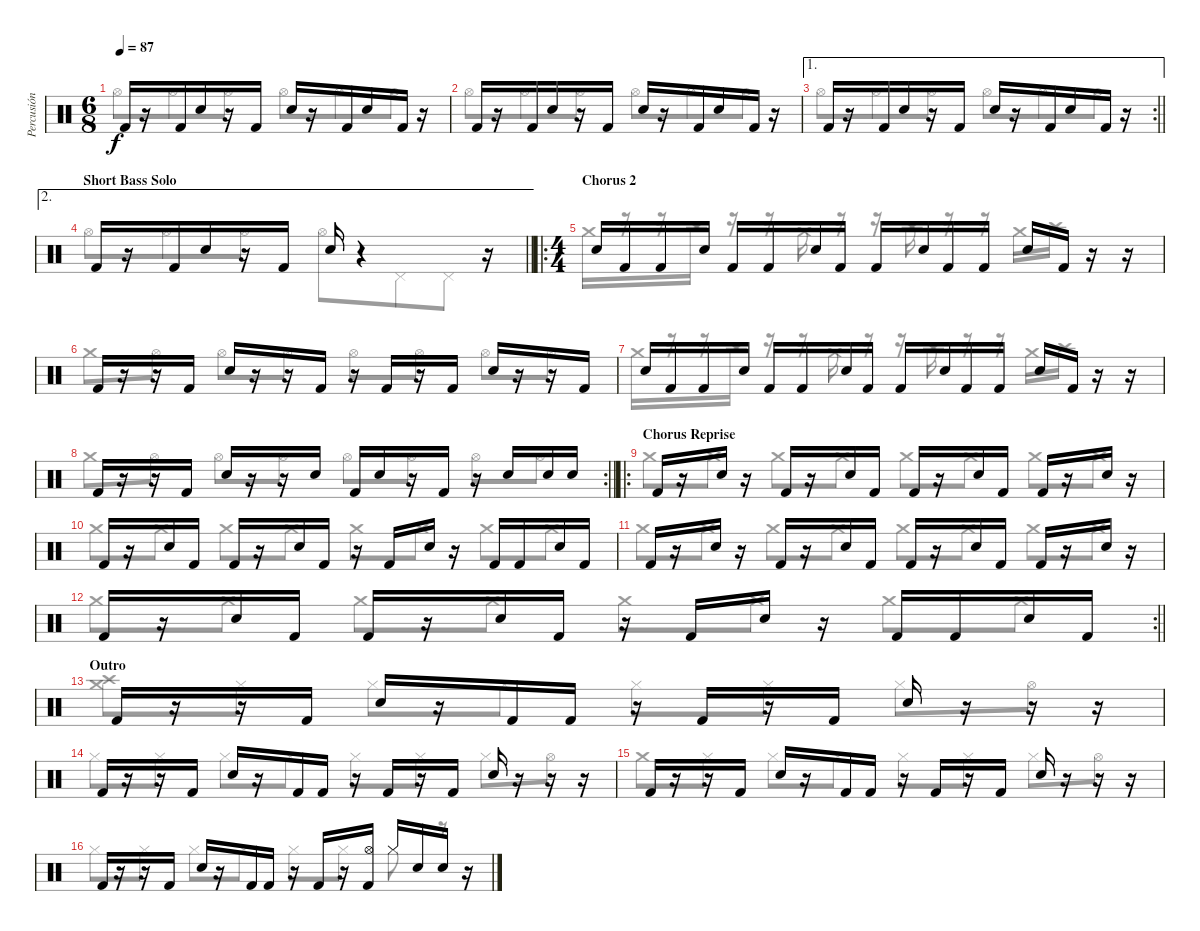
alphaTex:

\track ("Percusión" "Percusión") {instrument percussion}
\staff {score}
\articulation defaults
\voice
\ts (6 8)
\tempo 87
\clef neutral
\ks c "Kick (hit) 2".16{dy f}
r.16 "Kick (hit) 2".16 "Snare (hit) 2".16 r.16 "Kick (hit) 2".16 "Snare (hit) 2".16 r.16 "Kick (hit) 2".16 "Snare (hit) 2".16 "Kick (hit) 2".16 r.16 |
"Kick (hit) 2".16 r.16 "Kick (hit) 2".16 "Snare (hit) 2".16 r.16 "Kick (hit) 2".16 "Snare (hit) 2".16 r.16 "Kick (hit) 2".16 "Snare (hit) 2".16 "Kick (hit) 2".16 r.16 |
\ae 1
\rc 2
\barLineRight lightlight "Kick (hit) 2".16
r.16 "Kick (hit) 2".16 "Snare (hit) 2".16 r.16 "Kick (hit) 2".16 "Snare (hit) 2".16 r.16 "Kick (hit) 2".16 "Snare (hit) 2".16 "Kick (hit) 2".16 r.16 |
\ae 2
\section ("" "Short Bass Solo")
\barLineRight lightlight "Kick (hit) 2".16
r.16 "Kick (hit) 2".16 "Snare (hit) 2".16 r.16 "Kick (hit) 2".16 "Snare (hit) 2".16 r.4 r.16 |
\ro
\ts (4 4)
\section ("" "Chorus 2")
"Snare (hit) 2".16 "Kick (hit) 2".16 "Kick (hit) 2".16 "Snare (hit) 2".16 "Kick (hit) 2".16 "Kick (hit) 2".16 "Snare (hit) 2".16 "Kick (hit) 2".16 "Kick (hit) 2".16 "Snare (hit) 2".16 "Kick (hit) 2".16 "Kick (hit) 2".16 "Snare (hit) 2".16 "Kick (hit) 2".16 r.16 r.16 |
"Kick (hit) 2".16 r.16 r.16 "Kick (hit) 2".16 "Snare (hit) 2".16 r.16 r.16 "Kick (hit) 2".16 r.16 "Kick (hit) 2".16 r.16 "Kick (hit) 2".16 "Snare (hit) 2".16 r.16 r.16 "Kick (hit) 2".16 |
"Snare (hit) 2".16 "Kick (hit) 2".16 "Kick (hit) 2".16 "Snare (hit) 2".16 "Kick (hit) 2".16 "Kick (hit) 2".16 "Snare (hit) 2".16 "Kick (hit) 2".16 "Kick (hit) 2".16 "Snare (hit) 2".16 "Kick (hit) 2".16 "Kick (hit) 2".16 "Snare (hit) 2".16 "Kick (hit) 2".16 r.16 r.16 |
\rc 2
\barLineRight lightlight "Kick (hit) 2".16
r.16 r.16 "Kick (hit) 2".16 "Snare (hit) 2".16 r.16 r.16 "Snare (hit) 2".16 "Kick (hit) 2".16 "Snare (hit) 2".16 r.16 "Kick (hit) 2".16 r.16 "Snare (hit) 2".16 "Snare (hit) 2".16 "Snare (hit) 2".16 |
\ro
\section ("" "Chorus Reprise")
"Kick (hit) 2".16 r.16 "Snare (hit) 2".16 r.16 "Kick (hit) 2".16 r.16 "Snare (hit) 2".16 "Kick (hit) 2".16 "Kick (hit) 2".16 r.16 "Snare (hit) 2".16 "Kick (hit) 2".16 "Kick (hit) 2".16 r.16 "Snare (hit) 2".16 r.16 |
"Kick (hit) 2".16 r.16 "Snare (hit) 2".16 "Kick (hit) 2".16 "Kick (hit) 2".16 r.16 "Snare (hit) 2".16 "Kick (hit) 2".16 r.16 "Kick (hit) 2".16 "Snare (hit) 2".16 r.16 "Kick (hit) 2".16 "Kick (hit) 2".16 "Snare (hit) 2".16 "Kick (hit) 2".16 |
"Kick (hit) 2".16 r.16 "Snare (hit) 2".16 r.16 "Kick (hit) 2".16 r.16 "Snare (hit) 2".16 "Kick (hit) 2".16 "Kick (hit) 2".16 r.16 "Snare (hit) 2".16 "Kick (hit) 2".16 "Kick (hit) 2".16 r.16 "Snare (hit) 2".16 r.16 |
\rc 2
\barLineRight lightlight "Kick (hit) 2".16
r.16 "Snare (hit) 2".16 "Kick (hit) 2".16 "Kick (hit) 2".16 r.16 "Snare (hit) 2".16 "Kick (hit) 2".16 r.16 "Kick (hit) 2".16 "Snare (hit) 2".16 r.16 "Kick (hit) 2".16 "Kick (hit) 2".16 "Snare (hit) 2".16 "Kick (hit) 2".16 |
\section ("" "Outro")
"Kick (hit) 2".16 r.16 r.16 "Kick (hit) 2".16 "Snare (hit) 2".16 r.16 "Kick (hit) 2".16 "Kick (hit) 2".16 r.16 "Kick (hit) 2".16 r.16 "Kick (hit) 2".16 "Snare (hit) 2".16 r.16 r.16 r.16 |
"Kick (hit) 2".16 r.16 r.16 "Kick (hit) 2".16 "Snare (hit) 2".16 r.16 "Kick (hit) 2".16 "Kick (hit) 2".16 r.16 "Kick (hit) 2".16 r.16 "Kick (hit) 2".16 "Snare (hit) 2".16 r.16 r.16 r.16 |
"Kick (hit) 2".16 r.16 r.16 "Kick (hit) 2".16 "Snare (hit) 2".16 r.16 "Kick (hit) 2".16 "Kick (hit) 2".16 r.16 "Kick (hit) 2".16 r.16 "Kick (hit) 2".16 "Snare (hit) 2".16 r.16 r.16 r.16 |
"Kick (hit) 2".16 r.16 r.16 "Kick (hit) 2".16 "Snare (hit) 2".16 r.16 "Kick (hit) 2".16 "Kick (hit) 2".16 r.16 "Kick (hit) 2".16 r.16 ("Hi-Hat (open)" "Kick (hit) 2").16 "Hi-Hat (closed)".16 "Snare (hit) 2".16 "Snare (hit) 2".16 r.16
\voice
\clef neutral
\ottava regular
\simile none
\ks c "Hi-Hat (open)".8{dy f} "Hi-Hat (open)".8 "Hi-Hat (open)".8 "Hi-Hat (open)".8 "Hi-Hat (open)".8 "Hi-Hat (open)".8
|
"Hi-Hat (open)".8 "Hi-Hat (open)".8 "Hi-Hat (open)".8 "Hi-Hat (open)".8 "Hi-Hat (open)".8 "Hi-Hat (open)".8 |
\barLineRight lightlight "Hi-Hat (open)".8 "Hi-Hat (open)".8 "Hi-Hat (open)".8 "Hi-Hat (open)".8 "Hi-Hat (open)".8 "Hi-Hat (open)".8
|
\barLineRight lightlight "Hi-Hat (open)".8 "Hi-Hat (open)".8 "Hi-Hat (open)".8 "Hi-Hat (open)".8 "Pedal Hi-Hat (hit)".8 "Pedal Hi-Hat (hit)".8
|
"Crash medium (hit)".16 r.16 r.16 "Crash high (hit)".16 r.16 r.16 "Crash medium (hit)".16 r.16 r.16 "Crash high (hit)".16 r.16 r.16 "Crash medium (hit)".16 "Crash high (hit)".16 r.16 r.16 |
"Crash medium (hit)".8 "Hi-Hat (open)".8 "Hi-Hat (open)".8 "Hi-Hat (open)".8 "Hi-Hat (open)".8 "Hi-Hat (open)".8 "Hi-Hat (open)".8 "Hi-Hat (open)".8 |
"Crash medium (hit)".16 r.16 r.16 "Crash high (hit)".16 r.16 r.16 "Crash medium (hit)".16 r.16 r.16 "Crash high (hit)".16 r.16 r.16 "Crash medium (hit)".16 "Crash high (hit)".16 r.16 r.16 |
\barLineRight lightlight "Crash medium (hit)".8 "Hi-Hat (open)".8 "Hi-Hat (open)".8 "Hi-Hat (open)".8 "Hi-Hat (open)".8 "Hi-Hat (open)".8 "Hi-Hat (open)".8 "Hi-Hat (open)".8
|
"Crash medium (hit)".8 "Crash medium (hit)".8 "Crash medium (hit)".8 "Crash medium (hit)".8 "Crash medium (hit)".8 "Crash medium (hit)".8 "Crash medium (hit)".8 "Crash medium (hit)".8 |
"Crash medium (hit)".8 "Crash medium (hit)".8 "Crash medium (hit)".8 "Crash medium (hit)".8 "Crash medium (hit)".8 "Crash medium (hit)".8 "Crash medium (hit)".8 "Crash medium (hit)".8 |
"Crash medium (hit)".8 "Crash medium (hit)".8 "Crash medium (hit)".8 "Crash medium (hit)".8 "Crash medium (hit)".8 "Crash medium (hit)".8 "Crash medium (hit)".8 "Crash medium (hit)".8 |
\barLineRight lightlight "Crash medium (hit)".8 "Crash medium (hit)".8 "Crash medium (hit)".8 "Crash medium (hit)".8 "Crash medium (hit)".8 "Crash medium (hit)".8 "Crash medium (hit)".8 "Crash medium (hit)".8
|
("Crash medium (hit)" "Crash high (hit)").8 "Hi-Hat (closed)".8 "Hi-Hat (closed)".8 "Hi-Hat (closed)".8 "Hi-Hat (closed)".8 "Hi-Hat (closed)".8 "Hi-Hat (closed)".8 "Hi-Hat (open)".8 |
"Hi-Hat (closed)".8 "Hi-Hat (closed)".8 "Hi-Hat (closed)".8 "Hi-Hat (closed)".8 "Hi-Hat (closed)".8 "Hi-Hat (closed)".8 "Hi-Hat (closed)".8 "Hi-Hat (open)".8 |
"Crash medium (hit)".8 "Hi-Hat (closed)".8 "Hi-Hat (closed)".8 "Hi-Hat (closed)".8 "Hi-Hat (closed)".8 "Hi-Hat (closed)".8 "Hi-Hat (closed)".8 "Hi-Hat (open)".8 |
"Hi-Hat (closed)".8 "Hi-Hat (closed)".8 "Hi-Hat (closed)".8 "Hi-Hat (closed)".8 "Hi-Hat (closed)".8 "Hi-Hat (closed)".8 "Hi-Hat (closed)".8 r.8
